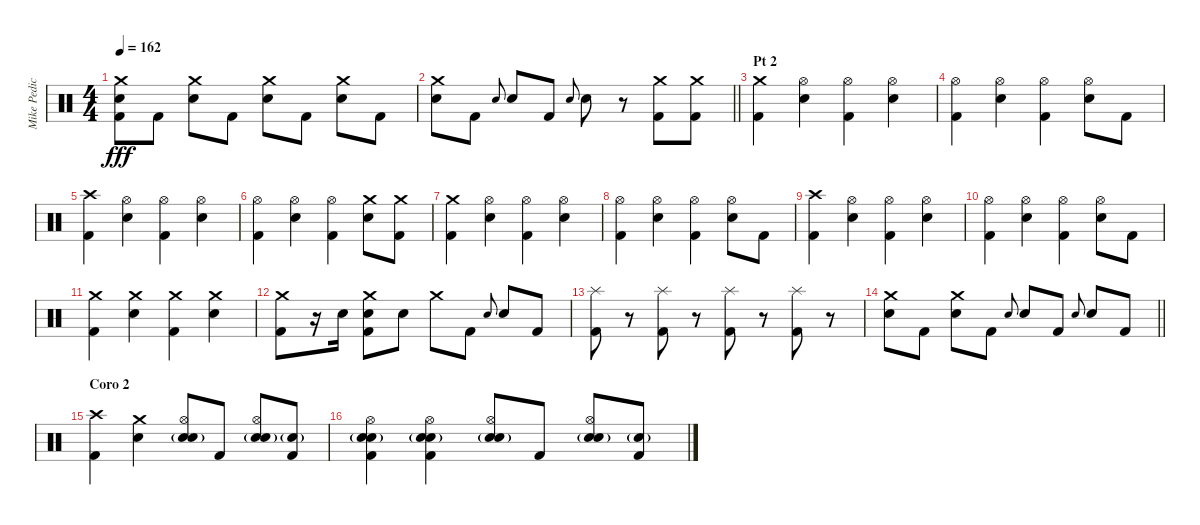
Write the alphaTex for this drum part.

\track ("Mike Pedicone [Drums]" "Mike Pedic") {instrument percussion}
\staff
\articulation defaults
\ts (4 4)
\tempo 162
\clef neutral
\ks c
("Crash medium (hit)" "Electric Snare (hit)" "Kick (hit) 2").8{dy fff} "Kick (hit) 2".8 ("Crash medium (hit)" "Electric Snare (hit)").8 "Kick (hit) 2".8 ("Crash medium (hit)" "Electric Snare (hit)").8 "Kick (hit) 2".8 ("Crash medium (hit)" "Electric Snare (hit)").8 "Kick (hit) 2".8 |
\barLineRight lightlight
("Crash medium (hit)" "Electric Snare (hit)").8 "Kick (hit) 2".8 "Electric Snare (hit)".8{gr onbeat} "Electric Snare (hit)".8 "Kick (hit) 2".8 "Electric Snare (hit)".8{gr onbeat} "Electric Snare (hit)".8 r.8 ("Crash medium (hit)" "Kick (hit) 2").8 ("Crash medium (hit)" "Kick (hit) 2").8 |
\section ("" "Pt 2")
("Crash medium (hit)" "Kick (hit) 2").4 ("Hi-Hat (open)" "Electric Snare (hit)").4 ("Hi-Hat (open)" "Kick (hit) 2").4 ("Hi-Hat (open)" "Electric Snare (hit)").4 |
("Hi-Hat (open)" "Kick (hit) 2").4 ("Hi-Hat (open)" "Electric Snare (hit)").4 ("Hi-Hat (open)" "Kick (hit) 2").4 ("Hi-Hat (open)" "Electric Snare (hit)").8 "Kick (hit) 2".8 |
("Crash high (hit)" "Kick (hit) 2").4 ("Hi-Hat (open)" "Electric Snare (hit)").4 ("Hi-Hat (open)" "Kick (hit) 2").4 ("Hi-Hat (open)" "Electric Snare (hit)").4 |
("Hi-Hat (open)" "Kick (hit) 2").4 ("Hi-Hat (open)" "Electric Snare (hit)").4 ("Hi-Hat (open)" "Kick (hit) 2").4 ("Crash medium (hit)" "Electric Snare (hit)").8 ("Crash medium (hit)" "Kick (hit) 2").8 |
("Crash medium (hit)" "Kick (hit) 2").4 ("Hi-Hat (open)" "Electric Snare (hit)").4 ("Hi-Hat (open)" "Kick (hit) 2").4 ("Hi-Hat (open)" "Electric Snare (hit)").4 |
("Hi-Hat (open)" "Kick (hit) 2").4 ("Hi-Hat (open)" "Electric Snare (hit)").4 ("Hi-Hat (open)" "Kick (hit) 2").4 ("Hi-Hat (open)" "Electric Snare (hit)").8 "Kick (hit) 2".8 |
("Crash high (hit)" "Kick (hit) 2").4 ("Hi-Hat (open)" "Electric Snare (hit)").4 ("Hi-Hat (open)" "Kick (hit) 2").4 ("Hi-Hat (open)" "Electric Snare (hit)").4 |
("Hi-Hat (open)" "Kick (hit) 2").4 ("Hi-Hat (open)" "Electric Snare (hit)").4 ("Hi-Hat (open)" "Kick (hit) 2").4 ("Hi-Hat (open)" "Electric Snare (hit)").8 "Kick (hit) 2".8 |
("Crash medium (hit)" "Kick (hit) 2").4 ("Crash medium (hit)" "Electric Snare (hit)").4 ("Crash medium (hit)" "Kick (hit) 2").4 ("Crash medium (hit)" "Electric Snare (hit)").4 |
("Crash medium (hit)" "Kick (hit) 2").8 r.16 "Electric Snare (hit)".16 ("Crash medium (hit)" "Electric Snare (hit)" "Kick (hit) 2").8 "Electric Snare (hit)".8 "Crash medium (hit)".8 "Kick (hit) 2".8 "Electric Snare (hit)".8{gr onbeat} "Electric Snare (hit)".8 "Kick (hit) 2".8 |
("Splash (hit)" "Kick (hit) 2").8 r.8 ("Splash (hit)" "Kick (hit) 2").8 r.8 ("Splash (hit)" "Kick (hit) 2").8 r.8 ("Splash (hit)" "Kick (hit) 2").8 r.8 |
\barLineRight lightlight
("Crash medium (hit)" "Electric Snare (hit)").8 "Kick (hit) 2".8 ("Crash medium (hit)" "Electric Snare (hit)").8 "Kick (hit) 2".8 "Electric Snare (hit)".8{gr onbeat} "Electric Snare (hit)".8 "Kick (hit) 2".8 "Electric Snare (hit)".8{gr onbeat} "Electric Snare (hit)".8 "Kick (hit) 2".8 |
\section ("" "Coro 2")
("Crash high (hit)" "Kick (hit) 2").4 ("Crash medium (hit)" "Electric Snare (hit)").4 ("Hi-Hat (open)" "Electric Snare (hit)" "Hand Clap (hit)"{g}).8 "Kick (hit) 2".8 ("Hi-Hat (open)" "Electric Snare (hit)" "Hand Clap (hit)"{g}).8 ("Electric Snare (hit)"{g} "Kick (hit) 2").8 |
("Hi-Hat (open)" "Electric Snare (hit)" "Hand Clap (hit)"{g} "Kick (hit) 2").4 ("Hi-Hat (open)" "Electric Snare (hit)" "Hand Clap (hit)"{g} "Kick (hit) 2").4 ("Hi-Hat (open)" "Electric Snare (hit)" "Hand Clap (hit)"{g}).8 "Kick (hit) 2".8 ("Hi-Hat (open)" "Electric Snare (hit)" "Hand Clap (hit)"{g}).8 ("Electric Snare (hit)"{g} "Kick (hit) 2").8
